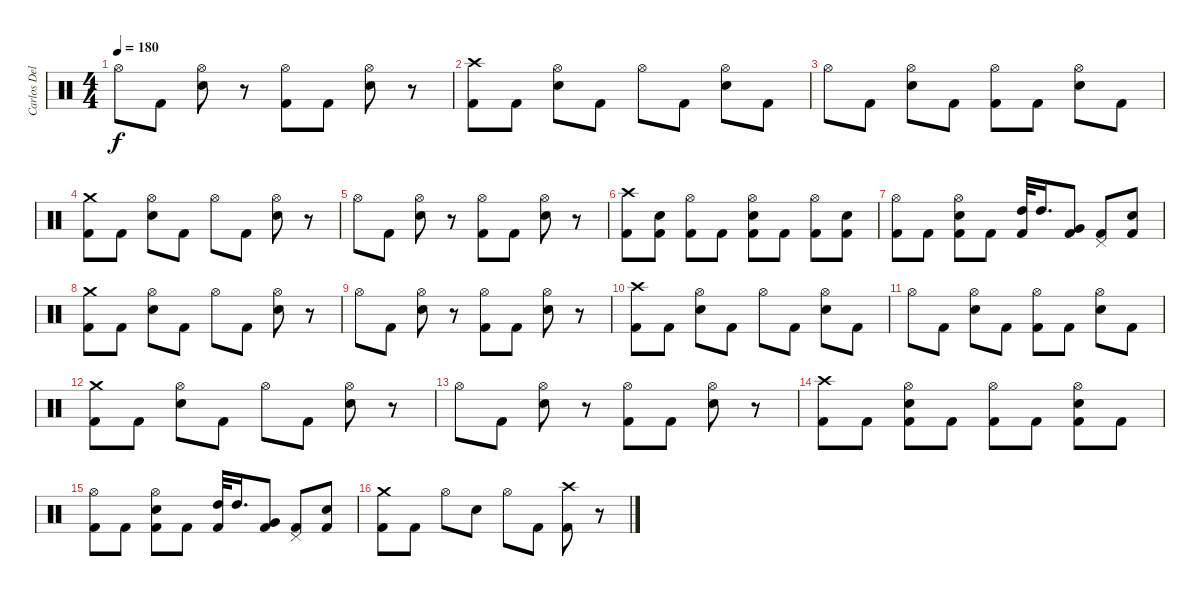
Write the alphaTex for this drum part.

\track ("Carlos Delgado" "Carlos Del") {instrument percussion}
\staff {score}
\articulation defaults
\ts (4 4)
\tempo 180
\clef neutral
\ks c "Hi-Hat (open)".8{dy f} "Kick (hit) 2".8
("Hi-Hat (open)" "Electric Snare (hit)").8 r.8 ("Hi-Hat (open)" "Kick (hit) 2").8 "Kick (hit) 2".8 ("Hi-Hat (open)" "Electric Snare (hit)").8 r.8 |
("Crash high (hit)" "Kick (hit) 2").8 "Kick (hit) 2".8 ("Hi-Hat (open)" "Electric Snare (hit)").8 "Kick (hit) 2".8 "Hi-Hat (open)".8 "Kick (hit) 2".8 ("Hi-Hat (open)" "Electric Snare (hit)").8 "Kick (hit) 2".8 |
"Hi-Hat (open)".8 "Kick (hit) 2".8 ("Hi-Hat (open)" "Electric Snare (hit)").8 "Kick (hit) 2".8 ("Hi-Hat (open)" "Kick (hit) 2").8 "Kick (hit) 2".8 ("Hi-Hat (open)" "Electric Snare (hit)").8 "Kick (hit) 2".8 |
("Crash medium (hit)" "Kick (hit) 2").8 "Kick (hit) 2".8 ("Hi-Hat (open)" "Electric Snare (hit)").8 "Kick (hit) 2".8 "Hi-Hat (open)".8 "Kick (hit) 2".8 ("Hi-Hat (open)" "Electric Snare (hit)").8 r.8 |
"Hi-Hat (open)".8 "Kick (hit) 2".8 ("Hi-Hat (open)" "Electric Snare (hit)").8 r.8 ("Hi-Hat (open)" "Kick (hit) 2").8 "Kick (hit) 2".8 ("Hi-Hat (open)" "Electric Snare (hit)").8 r.8 |
("Crash high (hit)" "Kick (hit) 2").8 ("Kick (hit) 2" "Electric Snare (hit)").8 ("Kick (hit) 2" "Hi-Hat (open)").8 "Kick (hit) 2".8 ("Electric Snare (hit)" "Kick (hit) 2" "Hi-Hat (open)").8 "Kick (hit) 2".8 ("Kick (hit) 2" "Hi-Hat (open)").8 ("Kick (hit) 2" "Electric Snare (hit)").8 |
("Kick (hit) 2" "Hi-Hat (open)").8 "Kick (hit) 2".8 ("Kick (hit) 2" "Hi-Hat (open)" "Electric Snare (hit)").8 "Kick (hit) 2".8 ("High Tom (hit)" "Kick (hit) 2").32 "High Tom (hit)".16{d} ("Very Low Tom (hit)" "Kick (hit) 2").8 ("Kick (hit) 2" "Pedal Hi-Hat (hit)").8 ("Kick (hit) 2" "Electric Snare (hit)").8 |
("Crash medium (hit)" "Kick (hit) 2").8 "Kick (hit) 2".8 ("Hi-Hat (open)" "Electric Snare (hit)").8 "Kick (hit) 2".8 "Hi-Hat (open)".8 "Kick (hit) 2".8 ("Hi-Hat (open)" "Electric Snare (hit)").8 r.8 |
"Hi-Hat (open)".8 "Kick (hit) 2".8 ("Hi-Hat (open)" "Electric Snare (hit)").8 r.8 ("Hi-Hat (open)" "Kick (hit) 2").8 "Kick (hit) 2".8 ("Hi-Hat (open)" "Electric Snare (hit)").8 r.8 |
("Crash high (hit)" "Kick (hit) 2").8 "Kick (hit) 2".8 ("Hi-Hat (open)" "Electric Snare (hit)").8 "Kick (hit) 2".8 "Hi-Hat (open)".8 "Kick (hit) 2".8 ("Hi-Hat (open)" "Electric Snare (hit)").8 "Kick (hit) 2".8 |
"Hi-Hat (open)".8 "Kick (hit) 2".8 ("Hi-Hat (open)" "Electric Snare (hit)").8 "Kick (hit) 2".8 ("Hi-Hat (open)" "Kick (hit) 2").8 "Kick (hit) 2".8 ("Hi-Hat (open)" "Electric Snare (hit)").8 "Kick (hit) 2".8 |
("Crash medium (hit)" "Kick (hit) 2").8 "Kick (hit) 2".8 ("Hi-Hat (open)" "Electric Snare (hit)").8 "Kick (hit) 2".8 "Hi-Hat (open)".8 "Kick (hit) 2".8 ("Hi-Hat (open)" "Electric Snare (hit)").8 r.8 |
"Hi-Hat (open)".8 "Kick (hit) 2".8 ("Hi-Hat (open)" "Electric Snare (hit)").8 r.8 ("Hi-Hat (open)" "Kick (hit) 2").8 "Kick (hit) 2".8 ("Hi-Hat (open)" "Electric Snare (hit)").8 r.8 |
("Crash high (hit)" "Kick (hit) 2").8 "Kick (hit) 2".8 ("Kick (hit) 2" "Hi-Hat (open)" "Electric Snare (hit)").8 "Kick (hit) 2".8 ("Kick (hit) 2" "Hi-Hat (open)").8 "Kick (hit) 2".8 ("Kick (hit) 2" "Hi-Hat (open)" "Electric Snare (hit)").8 "Kick (hit) 2".8 |
("Kick (hit) 2" "Hi-Hat (open)").8 "Kick (hit) 2".8 ("Kick (hit) 2" "Hi-Hat (open)" "Electric Snare (hit)").8 "Kick (hit) 2".8 ("High Tom (hit)" "Kick (hit) 2").32 "High Tom (hit)".16{d} ("Very Low Tom (hit)" "Kick (hit) 2").8 ("Kick (hit) 2" "Pedal Hi-Hat (hit)").8 ("Kick (hit) 2" "Electric Snare (hit)").8 |
("Crash medium (hit)" "Kick (hit) 2").8 "Kick (hit) 2".8 "Hi-Hat (open)".8 "Electric Snare (hit)".8 "Hi-Hat (open)".8 "Kick (hit) 2".8 ("Crash high (hit)" "Kick (hit) 2").8 r.8
